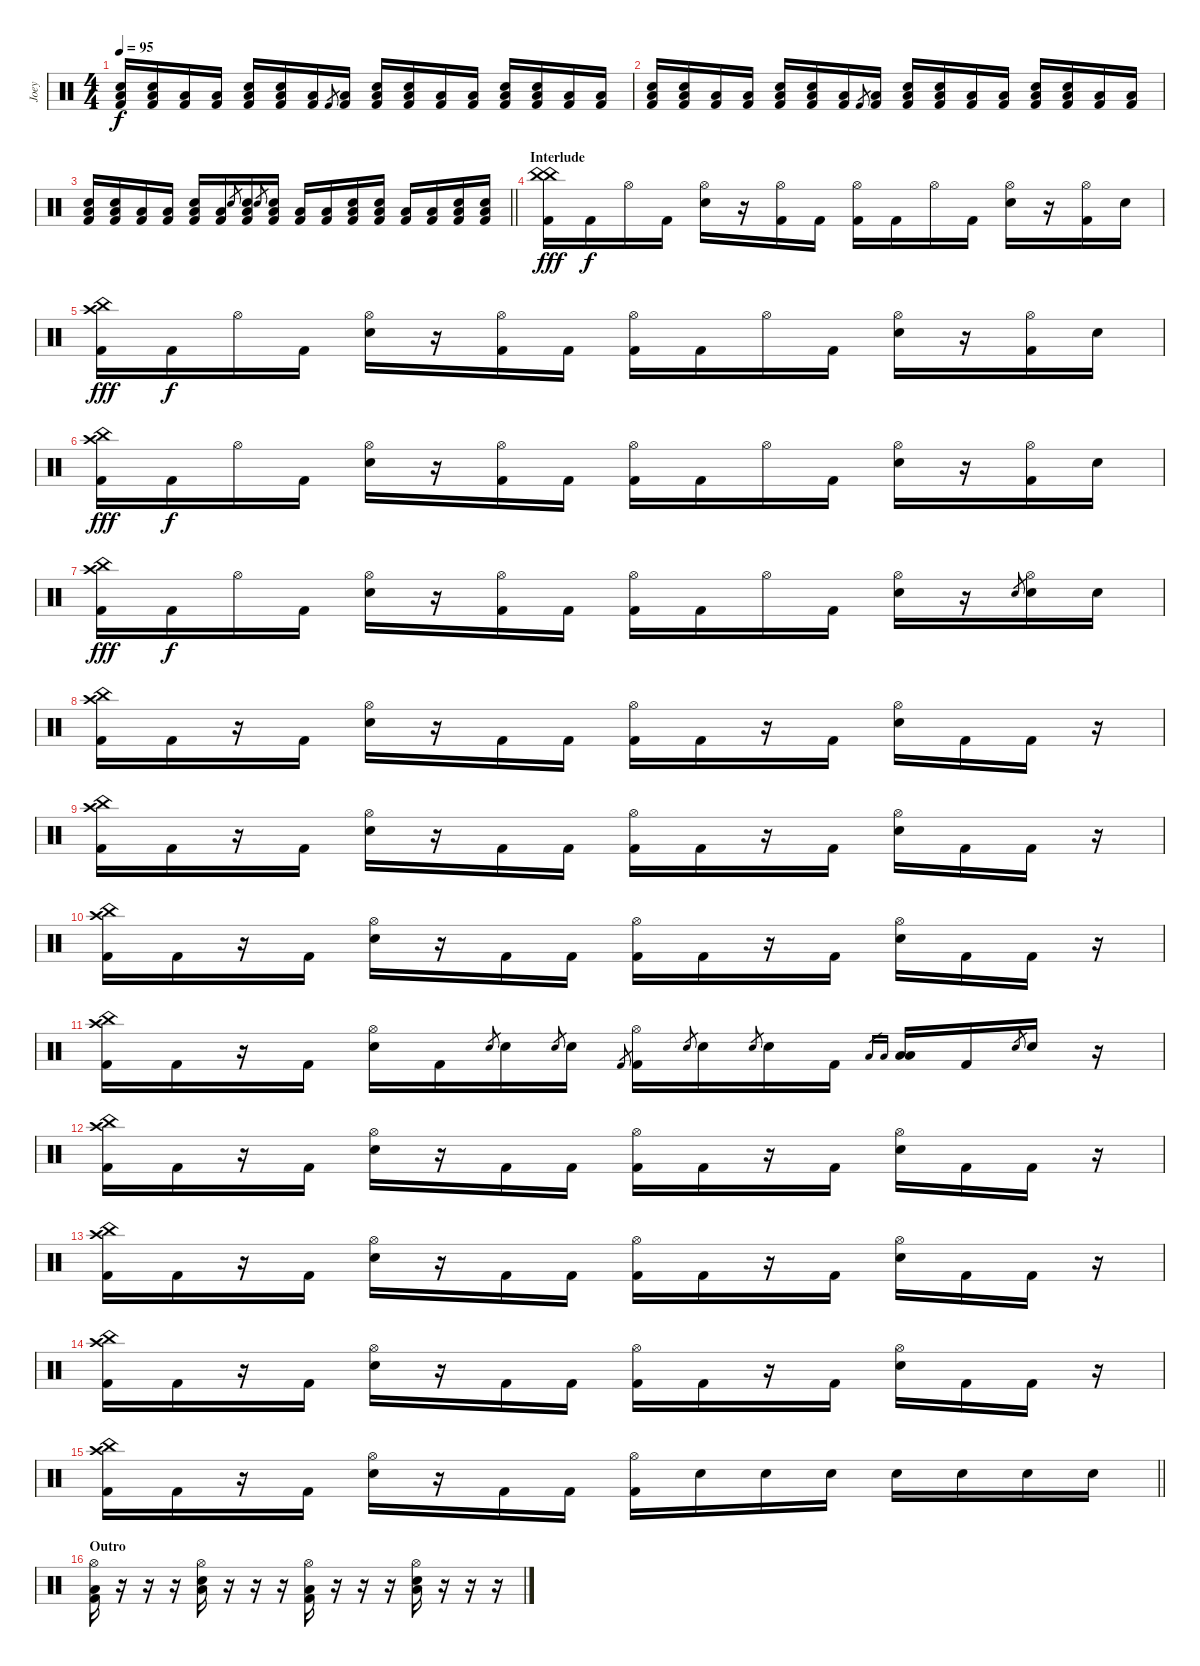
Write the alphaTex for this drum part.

\track ("Joey" "Joey") {instrument percussion}
\staff {score}
\articulation defaults
\ts (4 4)
\tempo 95
\clef neutral
\ks c
("Low Floor Tom (hit)" "Electric Snare (hit)" "Kick (hit) 2").16{dy f} ("Low Floor Tom (hit)" "Electric Snare (hit)" "Kick (hit) 2").16 ("Low Floor Tom (hit)" "Kick (hit) 2").16 ("Low Floor Tom (hit)" "Kick (hit) 2").16 ("Low Floor Tom (hit)" "Electric Snare (hit)" "Kick (hit) 2").16 ("Low Floor Tom (hit)" "Electric Snare (hit)" "Kick (hit) 2").16 ("Low Floor Tom (hit)" "Kick (hit) 2").16 "Kick (hit) 2".8{gr} ("Low Floor Tom (hit)" "Kick (hit) 2").16 ("Low Floor Tom (hit)" "Electric Snare (hit)" "Kick (hit) 2").16 ("Low Floor Tom (hit)" "Electric Snare (hit)" "Kick (hit) 2").16 ("Low Floor Tom (hit)" "Kick (hit) 2").16 ("Low Floor Tom (hit)" "Kick (hit) 2").16 ("Low Floor Tom (hit)" "Electric Snare (hit)" "Kick (hit) 2").16 ("Low Floor Tom (hit)" "Electric Snare (hit)" "Kick (hit) 2").16 ("Low Floor Tom (hit)" "Kick (hit) 2").16 ("Low Floor Tom (hit)" "Kick (hit) 2").16 |
("Low Floor Tom (hit)" "Electric Snare (hit)" "Kick (hit) 2").16 ("Low Floor Tom (hit)" "Electric Snare (hit)" "Kick (hit) 2").16 ("Low Floor Tom (hit)" "Kick (hit) 2").16 ("Low Floor Tom (hit)" "Kick (hit) 2").16 ("Low Floor Tom (hit)" "Electric Snare (hit)" "Kick (hit) 2").16 ("Low Floor Tom (hit)" "Electric Snare (hit)" "Kick (hit) 2").16 ("Low Floor Tom (hit)" "Kick (hit) 2").16 "Kick (hit) 2".8{gr} ("Low Floor Tom (hit)" "Kick (hit) 2").16 ("Low Floor Tom (hit)" "Electric Snare (hit)" "Kick (hit) 2").16 ("Low Floor Tom (hit)" "Electric Snare (hit)" "Kick (hit) 2").16 ("Low Floor Tom (hit)" "Kick (hit) 2").16 ("Low Floor Tom (hit)" "Kick (hit) 2").16 ("Low Floor Tom (hit)" "Electric Snare (hit)" "Kick (hit) 2").16 ("Low Floor Tom (hit)" "Electric Snare (hit)" "Kick (hit) 2").16 ("Low Floor Tom (hit)" "Kick (hit) 2").16 ("Low Floor Tom (hit)" "Kick (hit) 2").16 |
\barLineRight lightlight
("Low Floor Tom (hit)" "Electric Snare (hit)" "Kick (hit) 2").16 ("Low Floor Tom (hit)" "Electric Snare (hit)" "Kick (hit) 2").16 ("Low Floor Tom (hit)" "Kick (hit) 2").16 ("Low Floor Tom (hit)" "Kick (hit) 2").16 ("Low Floor Tom (hit)" "Electric Snare (hit)" "Kick (hit) 2").16 ("Low Floor Tom (hit)" "Kick (hit) 2").16 "Electric Snare (hit)".8{gr} ("Low Floor Tom (hit)" "Electric Snare (hit)" "Kick (hit) 2").16 "Electric Snare (hit)".8{gr} ("Low Floor Tom (hit)" "Electric Snare (hit)" "Kick (hit) 2").16 ("Low Floor Tom (hit)" "Kick (hit) 2").16 ("Low Floor Tom (hit)" "Kick (hit) 2").16 ("Low Floor Tom (hit)" "Electric Snare (hit)" "Kick (hit) 2").16 ("Low Floor Tom (hit)" "Electric Snare (hit)" "Kick (hit) 2").16 ("Low Floor Tom (hit)" "Kick (hit) 2").16 ("Low Floor Tom (hit)" "Kick (hit) 2").16 ("Low Floor Tom (hit)" "Electric Snare (hit)" "Kick (hit) 2").16 ("Low Floor Tom (hit)" "Electric Snare (hit)" "Kick (hit) 2").16 |
\section ("" "Interlude")
("China (hit)" "China (hit)" "Kick (hit) 2").16{dy fff} "Kick (hit) 2".16{dy f} "Hi-Hat (open)".16 "Kick (hit) 2".16 ("Hi-Hat (open)" "Electric Snare (hit)").16 r.16 ("Hi-Hat (open)" "Kick (hit) 2").16 "Kick (hit) 2".16 ("Hi-Hat (open)" "Kick (hit) 2").16 "Kick (hit) 2".16 "Hi-Hat (open)".16 "Kick (hit) 2".16 ("Hi-Hat (open)" "Electric Snare (hit)").16 r.16 ("Hi-Hat (open)" "Kick (hit) 2").16 "Electric Snare (hit)".16 |
("Crash high (hit)" "China (hit)" "Kick (hit) 2").16{dy fff} "Kick (hit) 2".16{dy f} "Hi-Hat (open)".16 "Kick (hit) 2".16 ("Hi-Hat (open)" "Electric Snare (hit)").16 r.16 ("Hi-Hat (open)" "Kick (hit) 2").16 "Kick (hit) 2".16 ("Hi-Hat (open)" "Kick (hit) 2").16 "Kick (hit) 2".16 "Hi-Hat (open)".16 "Kick (hit) 2".16 ("Hi-Hat (open)" "Electric Snare (hit)").16 r.16 ("Hi-Hat (open)" "Kick (hit) 2").16 "Electric Snare (hit)".16 |
("Crash high (hit)" "China (hit)" "Kick (hit) 2").16{dy fff} "Kick (hit) 2".16{dy f} "Hi-Hat (open)".16 "Kick (hit) 2".16 ("Hi-Hat (open)" "Electric Snare (hit)").16 r.16 ("Hi-Hat (open)" "Kick (hit) 2").16 "Kick (hit) 2".16 ("Hi-Hat (open)" "Kick (hit) 2").16 "Kick (hit) 2".16 "Hi-Hat (open)".16 "Kick (hit) 2".16 ("Hi-Hat (open)" "Electric Snare (hit)").16 r.16 ("Hi-Hat (open)" "Kick (hit) 2").16 "Electric Snare (hit)".16 |
("Crash high (hit)" "China (hit)" "Kick (hit) 2").16{dy fff} "Kick (hit) 2".16{dy f} "Hi-Hat (open)".16 "Kick (hit) 2".16 ("Hi-Hat (open)" "Electric Snare (hit)").16 r.16 ("Hi-Hat (open)" "Kick (hit) 2").16 "Kick (hit) 2".16 ("Hi-Hat (open)" "Kick (hit) 2").16 "Kick (hit) 2".16 "Hi-Hat (open)".16 "Kick (hit) 2".16 ("Hi-Hat (open)" "Electric Snare (hit)").16 r.16 "Electric Snare (hit)".8{gr} ("Hi-Hat (open)" "Electric Snare (hit)").16 "Electric Snare (hit)".16 |
("China (hit)" "Crash high (hit)" "Kick (hit) 2").16 "Kick (hit) 2".16 r.16 "Kick (hit) 2".16 ("Hi-Hat (open)" "Electric Snare (hit)").16 r.16 "Kick (hit) 2".16 "Kick (hit) 2".16 ("Hi-Hat (open)" "Kick (hit) 2").16 "Kick (hit) 2".16 r.16 "Kick (hit) 2".16 ("Hi-Hat (open)" "Electric Snare (hit)").16 "Kick (hit) 2".16 "Kick (hit) 2".16 r.16 |
("China (hit)" "Crash high (hit)" "Kick (hit) 2").16 "Kick (hit) 2".16 r.16 "Kick (hit) 2".16 ("Hi-Hat (open)" "Electric Snare (hit)").16 r.16 "Kick (hit) 2".16 "Kick (hit) 2".16 ("Hi-Hat (open)" "Kick (hit) 2").16 "Kick (hit) 2".16 r.16 "Kick (hit) 2".16 ("Hi-Hat (open)" "Electric Snare (hit)").16 "Kick (hit) 2".16 "Kick (hit) 2".16 r.16 |
("China (hit)" "Crash high (hit)" "Kick (hit) 2").16 "Kick (hit) 2".16 r.16 "Kick (hit) 2".16 ("Hi-Hat (open)" "Electric Snare (hit)").16 r.16 "Kick (hit) 2".16 "Kick (hit) 2".16 ("Hi-Hat (open)" "Kick (hit) 2").16 "Kick (hit) 2".16 r.16 "Kick (hit) 2".16 ("Hi-Hat (open)" "Electric Snare (hit)").16 "Kick (hit) 2".16 "Kick (hit) 2".16 r.16 |
("China (hit)" "Crash high (hit)" "Kick (hit) 2").16 "Kick (hit) 2".16 r.16 "Kick (hit) 2".16 ("Hi-Hat (open)" "Electric Snare (hit)").16 "Kick (hit) 2".16 "Electric Snare (hit)".8{gr} "Electric Snare (hit)".16 "Electric Snare (hit)".8{gr} "Electric Snare (hit)".16 "Kick (hit) 2".8{gr} ("Hi-Hat (open)" "Kick (hit) 2").16 "Electric Snare (hit)".8{gr} "Electric Snare (hit)".16 "Electric Snare (hit)".8{gr} "Electric Snare (hit)".16 "Kick (hit) 2".16 "Low Floor Tom (hit)".16{gr} "Low Floor Tom (hit)".16{gr} ("Low Floor Tom (hit)" "Low Floor Tom (hit)").16 "Kick (hit) 2".16 "Electric Snare (hit)".8{gr} "Electric Snare (hit)".16 r.16 |
("China (hit)" "Crash high (hit)" "Kick (hit) 2").16 "Kick (hit) 2".16 r.16 "Kick (hit) 2".16 ("Hi-Hat (open)" "Electric Snare (hit)").16 r.16 "Kick (hit) 2".16 "Kick (hit) 2".16 ("Hi-Hat (open)" "Kick (hit) 2").16 "Kick (hit) 2".16 r.16 "Kick (hit) 2".16 ("Hi-Hat (open)" "Electric Snare (hit)").16 "Kick (hit) 2".16 "Kick (hit) 2".16 r.16 |
("China (hit)" "Crash high (hit)" "Kick (hit) 2").16 "Kick (hit) 2".16 r.16 "Kick (hit) 2".16 ("Hi-Hat (open)" "Electric Snare (hit)").16 r.16 "Kick (hit) 2".16 "Kick (hit) 2".16 ("Hi-Hat (open)" "Kick (hit) 2").16 "Kick (hit) 2".16 r.16 "Kick (hit) 2".16 ("Hi-Hat (open)" "Electric Snare (hit)").16 "Kick (hit) 2".16 "Kick (hit) 2".16 r.16 |
("China (hit)" "Crash high (hit)" "Kick (hit) 2").16 "Kick (hit) 2".16 r.16 "Kick (hit) 2".16 ("Hi-Hat (open)" "Electric Snare (hit)").16 r.16 "Kick (hit) 2".16 "Kick (hit) 2".16 ("Hi-Hat (open)" "Kick (hit) 2").16 "Kick (hit) 2".16 r.16 "Kick (hit) 2".16 ("Hi-Hat (open)" "Electric Snare (hit)").16 "Kick (hit) 2".16 "Kick (hit) 2".16 r.16 |
\barLineRight lightlight
("China (hit)" "Crash high (hit)" "Kick (hit) 2").16 "Kick (hit) 2".16 r.16 "Kick (hit) 2".16 ("Hi-Hat (open)" "Electric Snare (hit)").16 r.16 "Kick (hit) 2".16 "Kick (hit) 2".16 ("Hi-Hat (open)" "Kick (hit) 2").16 "Electric Snare (hit)".16 "Electric Snare (hit)".16 "Electric Snare (hit)".16 "Electric Snare (hit)".16 "Electric Snare (hit)".16 "Electric Snare (hit)".16 "Electric Snare (hit)".16 |
\section ("" "Outro")
("Hi-Hat (open)" "Low Floor Tom (hit)" "Kick (hit) 2").16 r.16 r.16 r.16 ("Hi-Hat (open)" "Low Floor Tom (hit)" "Electric Snare (hit)").16 r.16 r.16 r.16 ("Hi-Hat (open)" "Low Floor Tom (hit)" "Kick (hit) 2").16 r.16 r.16 r.16 ("Hi-Hat (open)" "Low Floor Tom (hit)" "Electric Snare (hit)").16 r.16 r.16 r.16
